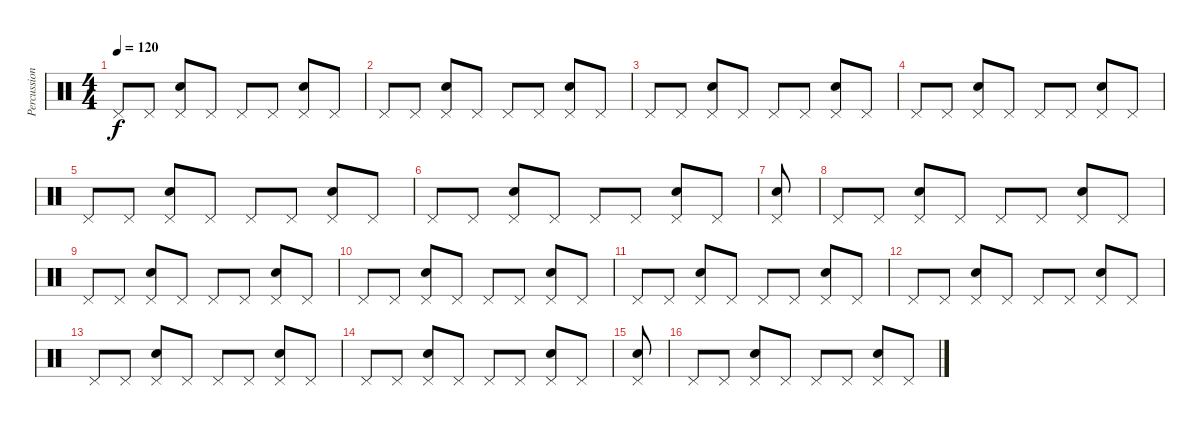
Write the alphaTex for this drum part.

\track ("Percussions" "Percussion") {instrument percussion}
\staff {score}
\articulation defaults
\ts (4 4)
\tempo 120
\clef neutral
\ks c "Pedal Hi-Hat (hit)".8{dy f} "Pedal Hi-Hat (hit)".8
("Pedal Hi-Hat (hit)" "Electric Snare (hit)").8 "Pedal Hi-Hat (hit)".8 "Pedal Hi-Hat (hit)".8 "Pedal Hi-Hat (hit)".8 ("Pedal Hi-Hat (hit)" "Electric Snare (hit)").8 "Pedal Hi-Hat (hit)".8 |
"Pedal Hi-Hat (hit)".8 "Pedal Hi-Hat (hit)".8 ("Pedal Hi-Hat (hit)" "Electric Snare (hit)").8 "Pedal Hi-Hat (hit)".8 "Pedal Hi-Hat (hit)".8 "Pedal Hi-Hat (hit)".8 ("Pedal Hi-Hat (hit)" "Electric Snare (hit)").8 "Pedal Hi-Hat (hit)".8 |
"Pedal Hi-Hat (hit)".8 "Pedal Hi-Hat (hit)".8 ("Pedal Hi-Hat (hit)" "Electric Snare (hit)").8 "Pedal Hi-Hat (hit)".8 "Pedal Hi-Hat (hit)".8 "Pedal Hi-Hat (hit)".8 ("Pedal Hi-Hat (hit)" "Electric Snare (hit)").8 "Pedal Hi-Hat (hit)".8 |
"Pedal Hi-Hat (hit)".8 "Pedal Hi-Hat (hit)".8 ("Pedal Hi-Hat (hit)" "Electric Snare (hit)").8 "Pedal Hi-Hat (hit)".8 "Pedal Hi-Hat (hit)".8 "Pedal Hi-Hat (hit)".8 ("Pedal Hi-Hat (hit)" "Electric Snare (hit)").8 "Pedal Hi-Hat (hit)".8 |
"Pedal Hi-Hat (hit)".8 "Pedal Hi-Hat (hit)".8 ("Pedal Hi-Hat (hit)" "Electric Snare (hit)").8 "Pedal Hi-Hat (hit)".8 "Pedal Hi-Hat (hit)".8 "Pedal Hi-Hat (hit)".8 ("Pedal Hi-Hat (hit)" "Electric Snare (hit)").8 "Pedal Hi-Hat (hit)".8 |
"Pedal Hi-Hat (hit)".8 "Pedal Hi-Hat (hit)".8 ("Pedal Hi-Hat (hit)" "Electric Snare (hit)").8 "Pedal Hi-Hat (hit)".8 "Pedal Hi-Hat (hit)".8 "Pedal Hi-Hat (hit)".8 ("Pedal Hi-Hat (hit)" "Electric Snare (hit)").8 "Pedal Hi-Hat (hit)".8 |
("Pedal Hi-Hat (hit)" "Electric Snare (hit)").8 |
"Pedal Hi-Hat (hit)".8 "Pedal Hi-Hat (hit)".8 ("Pedal Hi-Hat (hit)" "Electric Snare (hit)").8 "Pedal Hi-Hat (hit)".8 "Pedal Hi-Hat (hit)".8 "Pedal Hi-Hat (hit)".8 ("Pedal Hi-Hat (hit)" "Electric Snare (hit)").8 "Pedal Hi-Hat (hit)".8 |
"Pedal Hi-Hat (hit)".8 "Pedal Hi-Hat (hit)".8 ("Pedal Hi-Hat (hit)" "Electric Snare (hit)").8 "Pedal Hi-Hat (hit)".8 "Pedal Hi-Hat (hit)".8 "Pedal Hi-Hat (hit)".8 ("Pedal Hi-Hat (hit)" "Electric Snare (hit)").8 "Pedal Hi-Hat (hit)".8 |
"Pedal Hi-Hat (hit)".8 "Pedal Hi-Hat (hit)".8 ("Pedal Hi-Hat (hit)" "Electric Snare (hit)").8 "Pedal Hi-Hat (hit)".8 "Pedal Hi-Hat (hit)".8 "Pedal Hi-Hat (hit)".8 ("Pedal Hi-Hat (hit)" "Electric Snare (hit)").8 "Pedal Hi-Hat (hit)".8 |
"Pedal Hi-Hat (hit)".8 "Pedal Hi-Hat (hit)".8 ("Pedal Hi-Hat (hit)" "Electric Snare (hit)").8 "Pedal Hi-Hat (hit)".8 "Pedal Hi-Hat (hit)".8 "Pedal Hi-Hat (hit)".8 ("Pedal Hi-Hat (hit)" "Electric Snare (hit)").8 "Pedal Hi-Hat (hit)".8 |
"Pedal Hi-Hat (hit)".8 "Pedal Hi-Hat (hit)".8 ("Pedal Hi-Hat (hit)" "Electric Snare (hit)").8 "Pedal Hi-Hat (hit)".8 "Pedal Hi-Hat (hit)".8 "Pedal Hi-Hat (hit)".8 ("Pedal Hi-Hat (hit)" "Electric Snare (hit)").8 "Pedal Hi-Hat (hit)".8 |
"Pedal Hi-Hat (hit)".8 "Pedal Hi-Hat (hit)".8 ("Pedal Hi-Hat (hit)" "Electric Snare (hit)").8 "Pedal Hi-Hat (hit)".8 "Pedal Hi-Hat (hit)".8 "Pedal Hi-Hat (hit)".8 ("Pedal Hi-Hat (hit)" "Electric Snare (hit)").8 "Pedal Hi-Hat (hit)".8 |
"Pedal Hi-Hat (hit)".8 "Pedal Hi-Hat (hit)".8 ("Pedal Hi-Hat (hit)" "Electric Snare (hit)").8 "Pedal Hi-Hat (hit)".8 "Pedal Hi-Hat (hit)".8 "Pedal Hi-Hat (hit)".8 ("Pedal Hi-Hat (hit)" "Electric Snare (hit)").8 "Pedal Hi-Hat (hit)".8 |
("Pedal Hi-Hat (hit)" "Electric Snare (hit)").8 |
"Pedal Hi-Hat (hit)".8 "Pedal Hi-Hat (hit)".8 ("Pedal Hi-Hat (hit)" "Electric Snare (hit)").8 "Pedal Hi-Hat (hit)".8 "Pedal Hi-Hat (hit)".8 "Pedal Hi-Hat (hit)".8 ("Pedal Hi-Hat (hit)" "Electric Snare (hit)").8 "Pedal Hi-Hat (hit)".8
